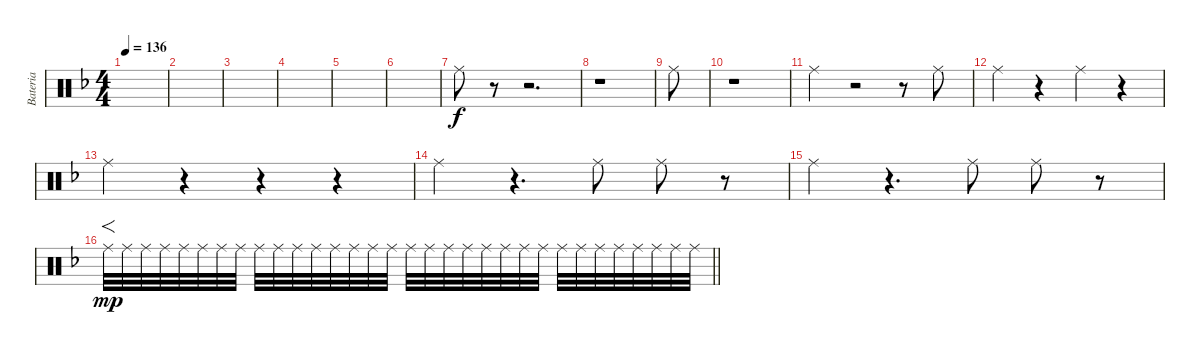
\track ("Bateria" "Bateria") {instrument percussion}
\staff {score}
\articulation defaults
\ts (4 4)
\tempo 136
\clef neutral
\ks f
|
|
|
|
|
|
"Ride (middle)".8 r.8 r.2{d} |
r.1 |
"Ride (middle)".8 |
r.1 |
"Ride (middle)".4 r.2 r.8 "Ride (middle)".8 |
"Ride (middle)".4 r.4 "Ride (middle)".4 r.4 |
"Ride (middle)".4 r.4 r.4 r.4 |
"Ride (middle)".4 r.4{d} "Ride (middle)".8 "Ride (middle)".8 r.8 |
"Ride (middle)".4 r.4{d} "Ride (middle)".8 "Ride (middle)".8 r.8 |
\barLineRight lightlight "Ride (middle)".32{f dy mp} "Ride (middle)".32 "Ride (middle)".32 "Ride (middle)".32 "Ride (middle)".32 "Ride (middle)".32 "Ride (middle)".32 "Ride (middle)".32 "Ride (middle)".32 "Ride (middle)".32 "Ride (middle)".32 "Ride (middle)".32 "Ride (middle)".32 "Ride (middle)".32 "Ride (middle)".32 "Ride (middle)".32 "Ride (middle)".32 "Ride (middle)".32 "Ride (middle)".32 "Ride (middle)".32 "Ride (middle)".32 "Ride (middle)".32 "Ride (middle)".32 "Ride (middle)".32 "Ride (middle)".32 "Ride (middle)".32 "Ride (middle)".32 "Ride (middle)".32 "Ride (middle)".32 "Ride (middle)".32 "Ride (middle)".32 "Ride (middle)".32
